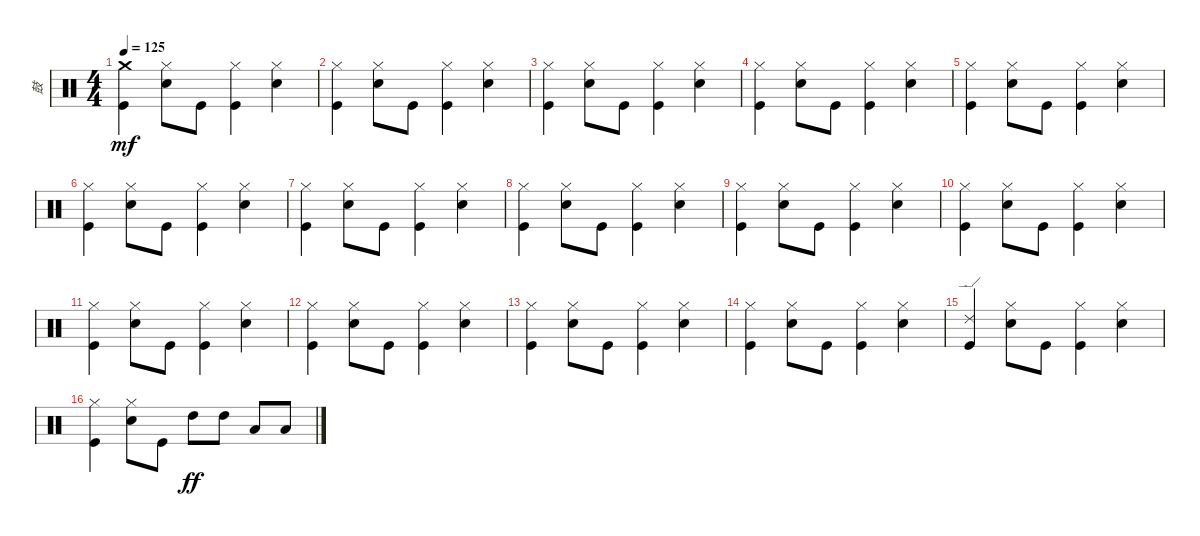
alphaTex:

\track ("鼓" "鼓") {instrument percussion}
\staff {score}
\articulation defaults
\ts (4 4)
\tempo 125
\clef neutral
\ks c
("Kick (hit)" "Crash medium (hit)").4{dy mf} ("Snare (hit) 2" "Hi-Hat (closed)").8 "Kick (hit)".8 ("Kick (hit)" "Hi-Hat (closed)").4 ("Snare (hit) 2" "Hi-Hat (closed)").4 |
("Kick (hit)" "Hi-Hat (closed)").4 ("Snare (hit) 2" "Hi-Hat (closed)").8 "Kick (hit)".8 ("Kick (hit)" "Hi-Hat (closed)").4 ("Snare (hit) 2" "Hi-Hat (closed)").4 |
("Kick (hit)" "Hi-Hat (closed)").4 ("Snare (hit) 2" "Hi-Hat (closed)").8 "Kick (hit)".8 ("Kick (hit)" "Hi-Hat (closed)").4 ("Snare (hit) 2" "Hi-Hat (closed)").4 |
("Kick (hit)" "Hi-Hat (closed)").4 ("Snare (hit) 2" "Hi-Hat (closed)").8 "Kick (hit)".8 ("Kick (hit)" "Hi-Hat (closed)").4 ("Snare (hit) 2" "Hi-Hat (closed)").4 |
("Kick (hit)" "Hi-Hat (closed)").4 ("Snare (hit) 2" "Hi-Hat (closed)").8 "Kick (hit)".8 ("Kick (hit)" "Hi-Hat (closed)").4 ("Snare (hit) 2" "Hi-Hat (closed)").4 |
("Kick (hit)" "Hi-Hat (closed)").4 ("Snare (hit) 2" "Hi-Hat (closed)").8 "Kick (hit)".8 ("Kick (hit)" "Hi-Hat (closed)").4 ("Snare (hit) 2" "Hi-Hat (closed)").4 |
("Kick (hit)" "Hi-Hat (closed)").4 ("Snare (hit) 2" "Hi-Hat (closed)").8 "Kick (hit)".8 ("Kick (hit)" "Hi-Hat (closed)").4 ("Snare (hit) 2" "Hi-Hat (closed)").4 |
("Kick (hit)" "Hi-Hat (closed)").4 ("Snare (hit) 2" "Hi-Hat (closed)").8 "Kick (hit)".8 ("Kick (hit)" "Hi-Hat (closed)").4 ("Snare (hit) 2" "Hi-Hat (closed)").4 |
("Kick (hit)" "Hi-Hat (closed)").4 ("Snare (hit) 2" "Hi-Hat (closed)").8 "Kick (hit)".8 ("Kick (hit)" "Hi-Hat (closed)").4 ("Snare (hit) 2" "Hi-Hat (closed)").4 |
("Kick (hit)" "Hi-Hat (closed)").4 ("Snare (hit) 2" "Hi-Hat (closed)").8 "Kick (hit)".8 ("Kick (hit)" "Hi-Hat (closed)").4 ("Snare (hit) 2" "Hi-Hat (closed)").4 |
("Kick (hit)" "Hi-Hat (closed)").4 ("Snare (hit) 2" "Hi-Hat (closed)").8 "Kick (hit)".8 ("Kick (hit)" "Hi-Hat (closed)").4 ("Snare (hit) 2" "Hi-Hat (closed)").4 |
("Kick (hit)" "Hi-Hat (closed)").4 ("Snare (hit) 2" "Hi-Hat (closed)").8 "Kick (hit)".8 ("Kick (hit)" "Hi-Hat (closed)").4 ("Snare (hit) 2" "Hi-Hat (closed)").4 |
("Kick (hit)" "Hi-Hat (closed)").4 ("Snare (hit) 2" "Hi-Hat (closed)").8 "Kick (hit)".8 ("Kick (hit)" "Hi-Hat (closed)").4 ("Snare (hit) 2" "Hi-Hat (closed)").4 |
("Kick (hit)" "Hi-Hat (closed)").4 ("Snare (hit) 2" "Hi-Hat (closed)").8 "Kick (hit)".8 ("Kick (hit)" "Hi-Hat (closed)").4 ("Snare (hit) 2" "Hi-Hat (closed)").4 |
("Kick (hit)" "Ride (edge) 2").4 ("Snare (hit) 2" "Hi-Hat (closed)").8 "Kick (hit)".8 ("Kick (hit)" "Hi-Hat (closed)").4 ("Snare (hit) 2" "Hi-Hat (closed)").4 |
("Kick (hit)" "Hi-Hat (closed)").4 ("Snare (hit) 2" "Hi-Hat (closed)").8 "Kick (hit)".8 "High Tom (hit)".8{dy ff} "High Tom (hit)".8 "Low Tom (hit)".8 "Low Tom (hit)".8
